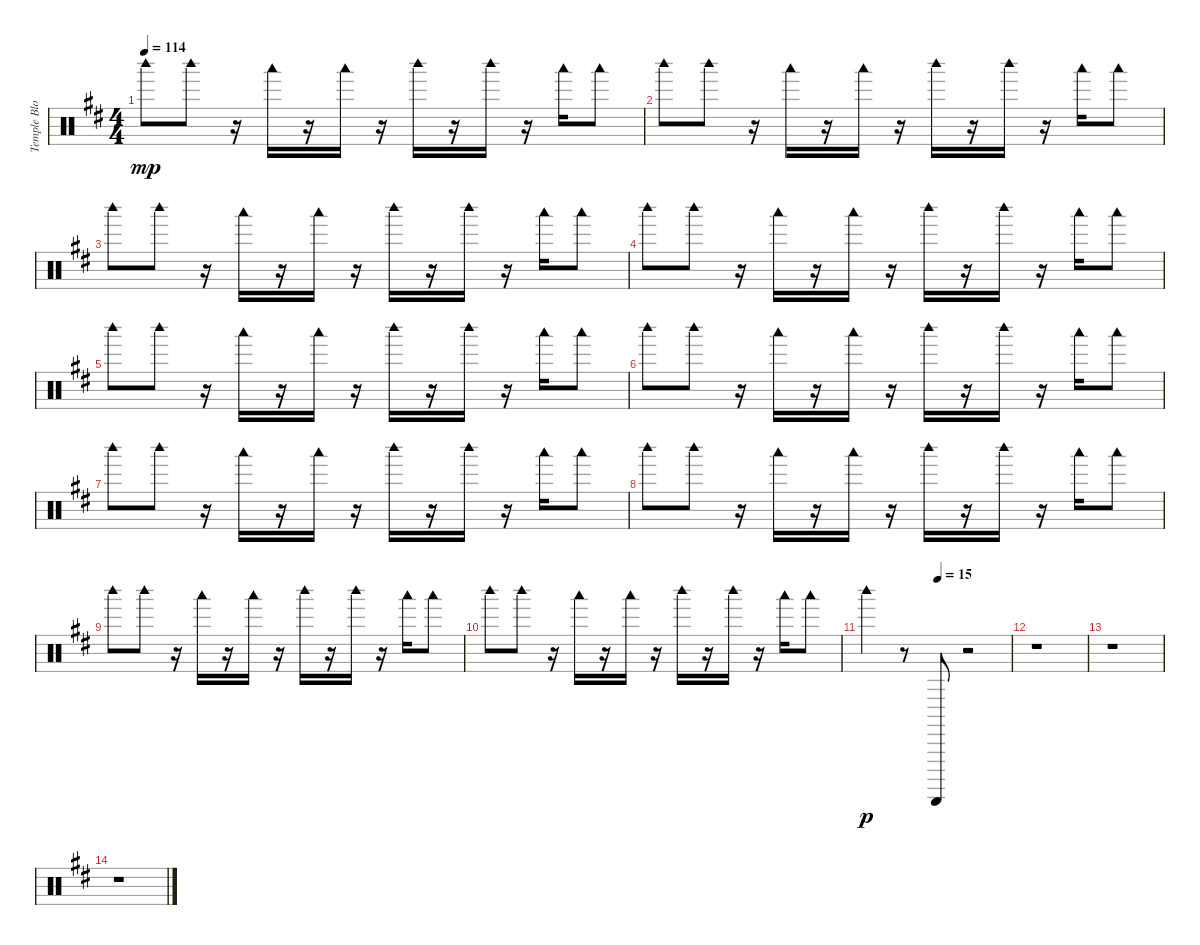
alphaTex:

\track ("Temple Block" "Temple Blo") {instrument percussion}
\staff {score}
\articulation defaults
\ts (4 4)
\tempo 114
\clef neutral
\ks d "Woodblock high (hit)".8{dy mp} "Woodblock high (hit)".8
r.16 "Woodblock low (hit)".16 r.16 "Woodblock low (hit)".16 r.16 "Woodblock high (hit)".16 r.16 "Woodblock high (hit)".16 r.16 "Woodblock low (hit)".16 "Woodblock low (hit)".8 |
"Woodblock high (hit)".8 "Woodblock high (hit)".8 r.16 "Woodblock low (hit)".16 r.16 "Woodblock low (hit)".16 r.16 "Woodblock high (hit)".16 r.16 "Woodblock high (hit)".16 r.16 "Woodblock low (hit)".16 "Woodblock low (hit)".8 |
"Woodblock high (hit)".8 "Woodblock high (hit)".8 r.16 "Woodblock low (hit)".16 r.16 "Woodblock low (hit)".16 r.16 "Woodblock high (hit)".16 r.16 "Woodblock high (hit)".16 r.16 "Woodblock low (hit)".16 "Woodblock low (hit)".8 |
"Woodblock high (hit)".8 "Woodblock high (hit)".8 r.16 "Woodblock low (hit)".16 r.16 "Woodblock low (hit)".16 r.16 "Woodblock high (hit)".16 r.16 "Woodblock high (hit)".16 r.16 "Woodblock low (hit)".16 "Woodblock low (hit)".8 |
"Woodblock high (hit)".8 "Woodblock high (hit)".8 r.16 "Woodblock low (hit)".16 r.16 "Woodblock low (hit)".16 r.16 "Woodblock high (hit)".16 r.16 "Woodblock high (hit)".16 r.16 "Woodblock low (hit)".16 "Woodblock low (hit)".8 |
"Woodblock high (hit)".8 "Woodblock high (hit)".8 r.16 "Woodblock low (hit)".16 r.16 "Woodblock low (hit)".16 r.16 "Woodblock high (hit)".16 r.16 "Woodblock high (hit)".16 r.16 "Woodblock low (hit)".16 "Woodblock low (hit)".8 |
"Woodblock high (hit)".8 "Woodblock high (hit)".8 r.16 "Woodblock low (hit)".16 r.16 "Woodblock low (hit)".16 r.16 "Woodblock high (hit)".16 r.16 "Woodblock high (hit)".16 r.16 "Woodblock low (hit)".16 "Woodblock low (hit)".8 |
"Woodblock high (hit)".8 "Woodblock high (hit)".8 r.16 "Woodblock low (hit)".16 r.16 "Woodblock low (hit)".16 r.16 "Woodblock high (hit)".16 r.16 "Woodblock high (hit)".16 r.16 "Woodblock low (hit)".16 "Woodblock low (hit)".8 |
"Woodblock high (hit)".8 "Woodblock high (hit)".8 r.16 "Woodblock low (hit)".16 r.16 "Woodblock low (hit)".16 r.16 "Woodblock high (hit)".16 r.16 "Woodblock high (hit)".16 r.16 "Woodblock low (hit)".16 "Woodblock low (hit)".8 |
"Woodblock high (hit)".8 "Woodblock high (hit)".8 r.16 "Woodblock low (hit)".16 r.16 "Woodblock low (hit)".16 r.16 "Woodblock high (hit)".16 r.16 "Woodblock high (hit)".16 r.16 "Woodblock low (hit)".16 "Woodblock low (hit)".8 |
\tempo (15 0.5)
"Woodblock high (hit)".4{dy p} r.8 "Guiro (scrap-return)".8 r.2 |
r.1 |
r.1 |
r.1
